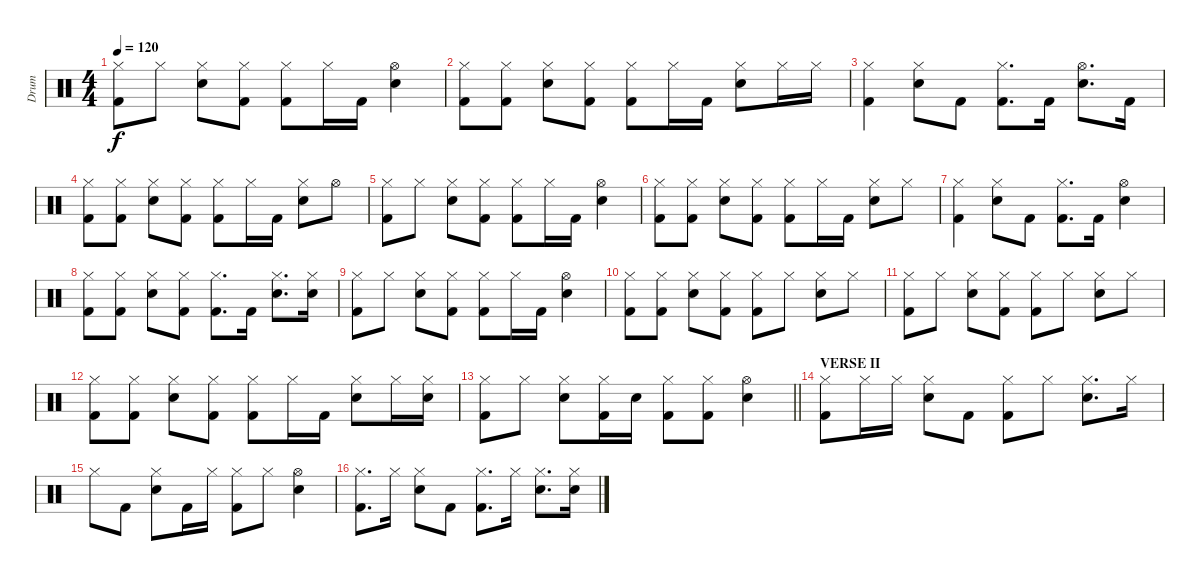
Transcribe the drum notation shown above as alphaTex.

\track ("Drum" "Drum") {instrument percussion}
\staff {score}
\articulation defaults
\ts (4 4)
\tempo 120
\clef neutral
\ks c
("Kick (hit) 2" "Hi-Hat (closed)").8{dy f} "Hi-Hat (closed)".8 ("Snare (hit) 2" "Hi-Hat (closed)").8 ("Kick (hit) 2" "Hi-Hat (closed)").8 ("Kick (hit) 2" "Hi-Hat (closed)").8 "Hi-Hat (closed)".16 "Kick (hit) 2".16 ("Snare (hit) 2" "Hi-Hat (open)").4 |
("Kick (hit) 2" "Hi-Hat (closed)").8 ("Kick (hit) 2" "Hi-Hat (closed)").8 ("Snare (hit) 2" "Hi-Hat (closed)").8 ("Kick (hit) 2" "Hi-Hat (closed)").8 ("Kick (hit) 2" "Hi-Hat (closed)").8 "Hi-Hat (closed)".16 "Kick (hit) 2".16 ("Snare (hit) 2" "Hi-Hat (closed)").8 "Hi-Hat (closed)".16 "Hi-Hat (closed)".16 |
("Kick (hit) 2" "Hi-Hat (closed)").4 ("Snare (hit) 2" "Hi-Hat (closed)").8 "Kick (hit) 2".8 ("Kick (hit) 2" "Hi-Hat (closed)").8{d} "Kick (hit) 2".16 ("Snare (hit) 2" "Hi-Hat (open)").8{d} "Kick (hit) 2".16 |
("Kick (hit) 2" "Hi-Hat (closed)").8 ("Kick (hit) 2" "Hi-Hat (closed)").8 ("Snare (hit) 2" "Hi-Hat (closed)").8 ("Kick (hit) 2" "Hi-Hat (closed)").8 ("Kick (hit) 2" "Hi-Hat (closed)").8 "Hi-Hat (closed)".16 "Kick (hit) 2".16 ("Snare (hit) 2" "Hi-Hat (closed)").8 "Hi-Hat (open)".8 |
("Kick (hit) 2" "Hi-Hat (closed)").8 "Hi-Hat (closed)".8 ("Snare (hit) 2" "Hi-Hat (closed)").8 ("Kick (hit) 2" "Hi-Hat (closed)").8 ("Kick (hit) 2" "Hi-Hat (closed)").8 "Hi-Hat (closed)".16 "Kick (hit) 2".16 ("Snare (hit) 2" "Hi-Hat (open)").4 |
("Kick (hit) 2" "Hi-Hat (closed)").8 ("Kick (hit) 2" "Hi-Hat (closed)").8 ("Snare (hit) 2" "Hi-Hat (closed)").8 ("Kick (hit) 2" "Hi-Hat (closed)").8 ("Kick (hit) 2" "Hi-Hat (closed)").8 "Hi-Hat (closed)".16 "Kick (hit) 2".16 ("Snare (hit) 2" "Hi-Hat (closed)").8 "Hi-Hat (closed)".8 |
("Kick (hit) 2" "Hi-Hat (closed)").4 ("Snare (hit) 2" "Hi-Hat (closed)").8 "Kick (hit) 2".8 ("Kick (hit) 2" "Hi-Hat (closed)").8{d} "Kick (hit) 2".16 ("Snare (hit) 2" "Hi-Hat (open)").4 |
("Kick (hit) 2" "Hi-Hat (closed)").8 ("Kick (hit) 2" "Hi-Hat (closed)").8 ("Snare (hit) 2" "Hi-Hat (closed)").8 ("Kick (hit) 2" "Hi-Hat (closed)").8 ("Kick (hit) 2" "Hi-Hat (closed)").8{d} "Kick (hit) 2".16 ("Snare (hit) 2" "Hi-Hat (closed)").8{d} ("Snare (hit) 2" "Hi-Hat (closed)").16 |
("Kick (hit) 2" "Hi-Hat (closed)").8 "Hi-Hat (closed)".8 ("Snare (hit) 2" "Hi-Hat (closed)").8 ("Kick (hit) 2" "Hi-Hat (closed)").8 ("Kick (hit) 2" "Hi-Hat (closed)").8 "Hi-Hat (closed)".16 "Kick (hit) 2".16 ("Snare (hit) 2" "Hi-Hat (open)").4 |
("Kick (hit) 2" "Hi-Hat (closed)").8 ("Kick (hit) 2" "Hi-Hat (closed)").8 ("Snare (hit) 2" "Hi-Hat (closed)").8 ("Kick (hit) 2" "Hi-Hat (closed)").8 ("Kick (hit) 2" "Hi-Hat (closed)").8 "Hi-Hat (closed)".8 ("Snare (hit) 2" "Hi-Hat (closed)").8 "Hi-Hat (closed)".8 |
("Kick (hit) 2" "Hi-Hat (closed)").8 "Hi-Hat (closed)".8 ("Snare (hit) 2" "Hi-Hat (closed)").8 ("Kick (hit) 2" "Hi-Hat (closed)").8 ("Kick (hit) 2" "Hi-Hat (closed)").8 "Hi-Hat (closed)".8 ("Snare (hit) 2" "Hi-Hat (closed)").8 "Hi-Hat (closed)".8 |
("Kick (hit) 2" "Hi-Hat (closed)").8 ("Kick (hit) 2" "Hi-Hat (closed)").8 ("Snare (hit) 2" "Hi-Hat (closed)").8 ("Kick (hit) 2" "Hi-Hat (closed)").8 ("Kick (hit) 2" "Hi-Hat (closed)").8 "Hi-Hat (closed)".16 "Kick (hit) 2".16 ("Snare (hit) 2" "Hi-Hat (closed)").8 "Hi-Hat (closed)".16 ("Snare (hit) 2" "Hi-Hat (closed)").16 |
\barLineRight lightlight
("Kick (hit) 2" "Hi-Hat (closed)").8 "Hi-Hat (closed)".8 ("Snare (hit) 2" "Hi-Hat (closed)").8 ("Kick (hit) 2" "Hi-Hat (closed)").16 "Snare (hit) 2".16 ("Kick (hit) 2" "Hi-Hat (closed)").8 ("Kick (hit) 2" "Hi-Hat (closed)").8 ("Snare (hit) 2" "Hi-Hat (open)").4 |
\section ("" "VERSE II")
("Kick (hit) 2" "Hi-Hat (closed)").8 "Hi-Hat (closed)".16 "Hi-Hat (closed)".16 ("Snare (hit) 2" "Hi-Hat (closed)").8 "Kick (hit) 2".8 ("Kick (hit) 2" "Hi-Hat (closed)").8 "Hi-Hat (closed)".8 ("Snare (hit) 2" "Hi-Hat (closed)").8{d} "Hi-Hat (closed)".16 |
"Hi-Hat (closed)".8 "Kick (hit) 2".8 ("Snare (hit) 2" "Hi-Hat (closed)").8 "Kick (hit) 2".16 "Hi-Hat (closed)".16 ("Kick (hit) 2" "Hi-Hat (closed)").8 "Hi-Hat (closed)".8 ("Snare (hit) 2" "Hi-Hat (open)").4 |
("Kick (hit) 2" "Hi-Hat (closed)").8{d} "Hi-Hat (closed)".16 ("Snare (hit) 2" "Hi-Hat (closed)").8 "Kick (hit) 2".8 ("Kick (hit) 2" "Hi-Hat (closed)").8{d} "Hi-Hat (closed)".16 ("Snare (hit) 2" "Hi-Hat (closed)").8{d} ("Snare (hit) 2" "Hi-Hat (closed)").16
